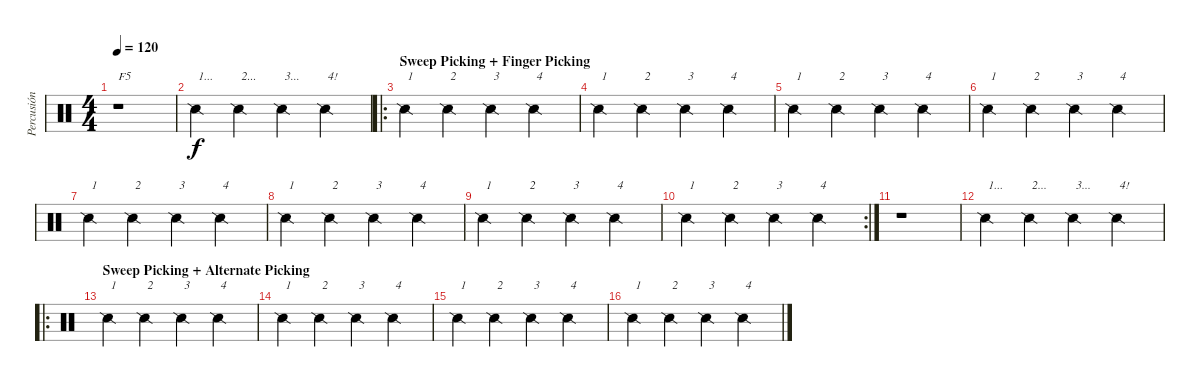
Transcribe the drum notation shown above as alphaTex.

\track ("Percusión" "Percusión") {instrument percussion}
\staff {score}
\articulation defaults
\ts (4 4)
\tempo 120
\clef neutral
\ks c
r.1{txt "F5" dy f} |
"Snare (side stick) 2".4{txt "1..."} "Snare (side stick) 2".4{txt "2..."} "Snare (side stick) 2".4{txt "3..."} "Snare (side stick) 2".4{txt "4!"} |
\ro
\section ("" "Sweep Picking + Finger Picking")
"Snare (side stick) 2".4{txt "1"} "Snare (side stick) 2".4{txt "2"} "Snare (side stick) 2".4{txt "3"} "Snare (side stick) 2".4{txt "4"} |
"Snare (side stick) 2".4{txt "1"} "Snare (side stick) 2".4{txt "2"} "Snare (side stick) 2".4{txt "3"} "Snare (side stick) 2".4{txt "4"} |
"Snare (side stick) 2".4{txt "1"} "Snare (side stick) 2".4{txt "2"} "Snare (side stick) 2".4{txt "3"} "Snare (side stick) 2".4{txt "4"} |
"Snare (side stick) 2".4{txt "1"} "Snare (side stick) 2".4{txt "2"} "Snare (side stick) 2".4{txt "3"} "Snare (side stick) 2".4{txt "4"} |
"Snare (side stick) 2".4{txt "1"} "Snare (side stick) 2".4{txt "2"} "Snare (side stick) 2".4{txt "3"} "Snare (side stick) 2".4{txt "4"} |
"Snare (side stick) 2".4{txt "1"} "Snare (side stick) 2".4{txt "2"} "Snare (side stick) 2".4{txt "3"} "Snare (side stick) 2".4{txt "4"} |
"Snare (side stick) 2".4{txt "1"} "Snare (side stick) 2".4{txt "2"} "Snare (side stick) 2".4{txt "3"} "Snare (side stick) 2".4{txt "4"} |
\rc 2 "Snare (side stick) 2".4{txt "1"} "Snare (side stick) 2".4{txt "2"} "Snare (side stick) 2".4{txt "3"} "Snare (side stick) 2".4{txt "4"}
|
r.1 |
"Snare (side stick) 2".4{txt "1..."} "Snare (side stick) 2".4{txt "2..."} "Snare (side stick) 2".4{txt "3..."} "Snare (side stick) 2".4{txt "4!"} |
\ro
\section ("" "Sweep Picking + Alternate Picking")
"Snare (side stick) 2".4{txt "1"} "Snare (side stick) 2".4{txt "2"} "Snare (side stick) 2".4{txt "3"} "Snare (side stick) 2".4{txt "4"} |
"Snare (side stick) 2".4{txt "1"} "Snare (side stick) 2".4{txt "2"} "Snare (side stick) 2".4{txt "3"} "Snare (side stick) 2".4{txt "4"} |
"Snare (side stick) 2".4{txt "1"} "Snare (side stick) 2".4{txt "2"} "Snare (side stick) 2".4{txt "3"} "Snare (side stick) 2".4{txt "4"} |
"Snare (side stick) 2".4{txt "1"} "Snare (side stick) 2".4{txt "2"} "Snare (side stick) 2".4{txt "3"} "Snare (side stick) 2".4{txt "4"}
